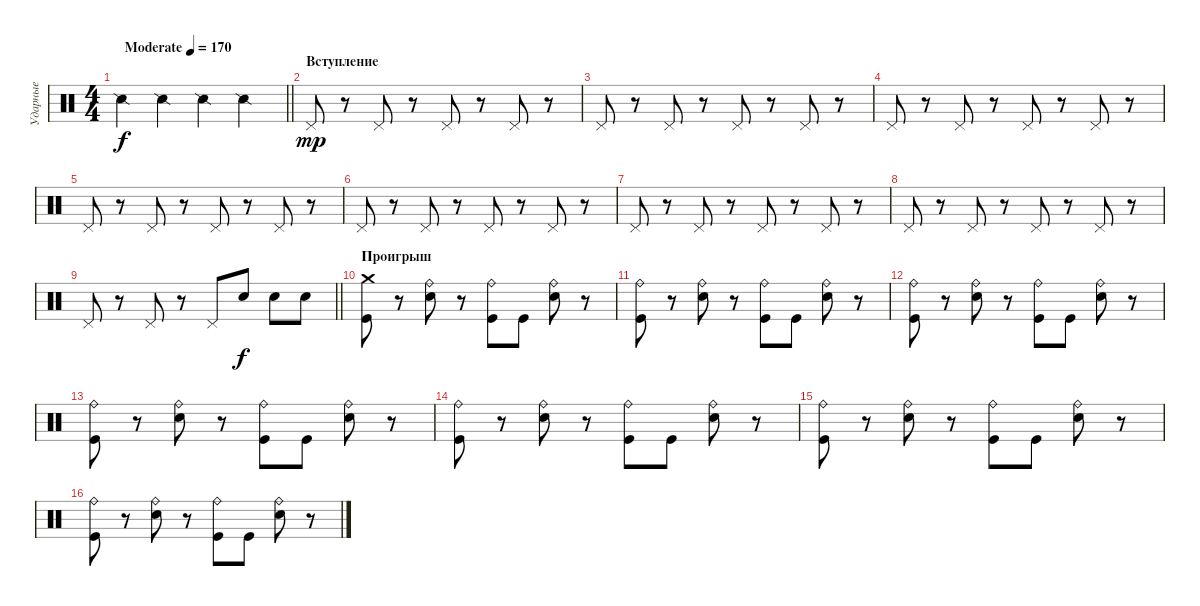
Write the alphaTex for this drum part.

\track ("Ударные" "Ударные") {instrument percussion}
\staff {score}
\articulation defaults
\ts (4 4)
\tempo (170 "Moderate")
\clef neutral
\barLineRight lightlight
\ks c "Snare (side stick) 2".4{dy f} "Snare (side stick) 2".4 "Snare (side stick) 2".4 "Snare (side stick) 2".4
|
\section ("" "Вступление")
"Pedal Hi-Hat (hit)".8{dy mp} r.8 "Pedal Hi-Hat (hit)".8 r.8 "Pedal Hi-Hat (hit)".8 r.8 "Pedal Hi-Hat (hit)".8 r.8 |
"Pedal Hi-Hat (hit)".8 r.8 "Pedal Hi-Hat (hit)".8 r.8 "Pedal Hi-Hat (hit)".8 r.8 "Pedal Hi-Hat (hit)".8 r.8 |
"Pedal Hi-Hat (hit)".8 r.8 "Pedal Hi-Hat (hit)".8 r.8 "Pedal Hi-Hat (hit)".8 r.8 "Pedal Hi-Hat (hit)".8 r.8 |
"Pedal Hi-Hat (hit)".8 r.8 "Pedal Hi-Hat (hit)".8 r.8 "Pedal Hi-Hat (hit)".8 r.8 "Pedal Hi-Hat (hit)".8 r.8 |
"Pedal Hi-Hat (hit)".8 r.8 "Pedal Hi-Hat (hit)".8 r.8 "Pedal Hi-Hat (hit)".8 r.8 "Pedal Hi-Hat (hit)".8 r.8 |
"Pedal Hi-Hat (hit)".8 r.8 "Pedal Hi-Hat (hit)".8 r.8 "Pedal Hi-Hat (hit)".8 r.8 "Pedal Hi-Hat (hit)".8 r.8 |
"Pedal Hi-Hat (hit)".8 r.8 "Pedal Hi-Hat (hit)".8 r.8 "Pedal Hi-Hat (hit)".8 r.8 "Pedal Hi-Hat (hit)".8 r.8 |
\barLineRight lightlight "Pedal Hi-Hat (hit)".8
r.8 "Pedal Hi-Hat (hit)".8 r.8 "Pedal Hi-Hat (hit)".8 "Electric Snare (hit)".8{dy f} "Electric Snare (hit)".8 "Electric Snare (hit)".8 |
\section ("" "Проигрыш")
("Crash medium (hit)" "Kick (hit)").8 r.8 ("Ride (bell)" "Electric Snare (hit)").8 r.8 ("Ride (bell)" "Kick (hit)").8 "Kick (hit)".8 ("Ride (bell)" "Electric Snare (hit)").8 r.8 |
("Ride (bell)" "Kick (hit)").8 r.8 ("Ride (bell)" "Electric Snare (hit)").8 r.8 ("Ride (bell)" "Kick (hit)").8 "Kick (hit)".8 ("Ride (bell)" "Electric Snare (hit)").8 r.8 |
("Ride (bell)" "Kick (hit)").8 r.8 ("Ride (bell)" "Electric Snare (hit)").8 r.8 ("Ride (bell)" "Kick (hit)").8 "Kick (hit)".8 ("Ride (bell)" "Electric Snare (hit)").8 r.8 |
("Ride (bell)" "Kick (hit)").8 r.8 ("Ride (bell)" "Electric Snare (hit)").8 r.8 ("Ride (bell)" "Kick (hit)").8 "Kick (hit)".8 ("Ride (bell)" "Electric Snare (hit)").8 r.8 |
("Ride (bell)" "Kick (hit)").8 r.8 ("Ride (bell)" "Electric Snare (hit)").8 r.8 ("Ride (bell)" "Kick (hit)").8 "Kick (hit)".8 ("Ride (bell)" "Electric Snare (hit)").8 r.8 |
("Ride (bell)" "Kick (hit)").8 r.8 ("Ride (bell)" "Electric Snare (hit)").8 r.8 ("Ride (bell)" "Kick (hit)").8 "Kick (hit)".8 ("Ride (bell)" "Electric Snare (hit)").8 r.8 |
("Ride (bell)" "Kick (hit)").8 r.8 ("Ride (bell)" "Electric Snare (hit)").8 r.8 ("Ride (bell)" "Kick (hit)").8 "Kick (hit)".8 ("Ride (bell)" "Electric Snare (hit)").8 r.8
